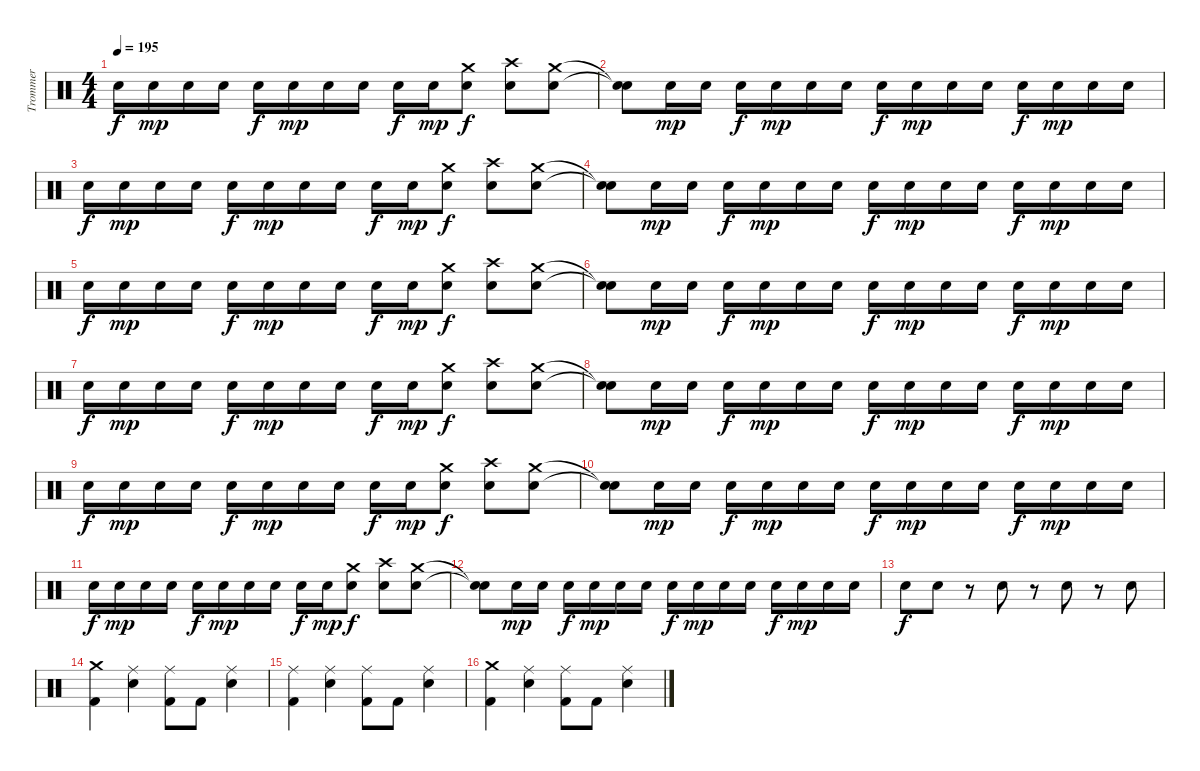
\track ("Trommer" "Trommer") {instrument percussion}
\staff {score}
\articulation defaults
\ts (4 4)
\tempo 195
\clef neutral
\ks c "Snare (hit) 2".16{dy f} "Snare (hit) 2".16{dy mp} "Snare (hit) 2".16 "Snare (hit) 2".16 "Snare (hit) 2".16{dy f} "Snare (hit) 2".16{dy mp} "Snare (hit) 2".16 "Snare (hit) 2".16 "Snare (hit) 2".16{dy f} "Snare (hit) 2".16{dy mp}
("Crash medium (hit)" "Snare (hit) 2").8{dy f} ("Crash high (hit)" "Snare (hit) 2").8 ("Crash medium (hit)" "Snare (hit) 2").8 |
("Snare (hit)"{t} "Snare (hit)"{t}).8 "Snare (hit) 2".16{dy mp} "Snare (hit) 2".16 "Snare (hit) 2".16{dy f} "Snare (hit) 2".16{dy mp} "Snare (hit) 2".16 "Snare (hit) 2".16 "Snare (hit) 2".16{dy f} "Snare (hit) 2".16{dy mp} "Snare (hit) 2".16 "Snare (hit) 2".16 "Snare (hit) 2".16{dy f} "Snare (hit) 2".16{dy mp} "Snare (hit) 2".16 "Snare (hit) 2".16 |
"Snare (hit) 2".16{dy f} "Snare (hit) 2".16{dy mp} "Snare (hit) 2".16 "Snare (hit) 2".16 "Snare (hit) 2".16{dy f} "Snare (hit) 2".16{dy mp} "Snare (hit) 2".16 "Snare (hit) 2".16 "Snare (hit) 2".16{dy f} "Snare (hit) 2".16{dy mp} ("Crash medium (hit)" "Snare (hit) 2").8{dy f} ("Crash high (hit)" "Snare (hit) 2").8 ("Crash medium (hit)" "Snare (hit) 2").8 |
("Snare (hit)"{t} "Snare (hit)"{t}).8 "Snare (hit) 2".16{dy mp} "Snare (hit) 2".16 "Snare (hit) 2".16{dy f} "Snare (hit) 2".16{dy mp} "Snare (hit) 2".16 "Snare (hit) 2".16 "Snare (hit) 2".16{dy f} "Snare (hit) 2".16{dy mp} "Snare (hit) 2".16 "Snare (hit) 2".16 "Snare (hit) 2".16{dy f} "Snare (hit) 2".16{dy mp} "Snare (hit) 2".16 "Snare (hit) 2".16 |
"Snare (hit) 2".16{dy f} "Snare (hit) 2".16{dy mp} "Snare (hit) 2".16 "Snare (hit) 2".16 "Snare (hit) 2".16{dy f} "Snare (hit) 2".16{dy mp} "Snare (hit) 2".16 "Snare (hit) 2".16 "Snare (hit) 2".16{dy f} "Snare (hit) 2".16{dy mp} ("Crash medium (hit)" "Snare (hit) 2").8{dy f} ("Crash high (hit)" "Snare (hit) 2").8 ("Crash medium (hit)" "Snare (hit) 2").8 |
("Snare (hit)"{t} "Snare (hit)"{t}).8 "Snare (hit) 2".16{dy mp} "Snare (hit) 2".16 "Snare (hit) 2".16{dy f} "Snare (hit) 2".16{dy mp} "Snare (hit) 2".16 "Snare (hit) 2".16 "Snare (hit) 2".16{dy f} "Snare (hit) 2".16{dy mp} "Snare (hit) 2".16 "Snare (hit) 2".16 "Snare (hit) 2".16{dy f} "Snare (hit) 2".16{dy mp} "Snare (hit) 2".16 "Snare (hit) 2".16 |
"Snare (hit) 2".16{dy f} "Snare (hit) 2".16{dy mp} "Snare (hit) 2".16 "Snare (hit) 2".16 "Snare (hit) 2".16{dy f} "Snare (hit) 2".16{dy mp} "Snare (hit) 2".16 "Snare (hit) 2".16 "Snare (hit) 2".16{dy f} "Snare (hit) 2".16{dy mp} ("Crash medium (hit)" "Snare (hit) 2").8{dy f} ("Crash high (hit)" "Snare (hit) 2").8 ("Crash medium (hit)" "Snare (hit) 2").8 |
("Snare (hit)"{t} "Snare (hit)"{t}).8 "Snare (hit) 2".16{dy mp} "Snare (hit) 2".16 "Snare (hit) 2".16{dy f} "Snare (hit) 2".16{dy mp} "Snare (hit) 2".16 "Snare (hit) 2".16 "Snare (hit) 2".16{dy f} "Snare (hit) 2".16{dy mp} "Snare (hit) 2".16 "Snare (hit) 2".16 "Snare (hit) 2".16{dy f} "Snare (hit) 2".16{dy mp} "Snare (hit) 2".16 "Snare (hit) 2".16 |
"Snare (hit) 2".16{dy f} "Snare (hit) 2".16{dy mp} "Snare (hit) 2".16 "Snare (hit) 2".16 "Snare (hit) 2".16{dy f} "Snare (hit) 2".16{dy mp} "Snare (hit) 2".16 "Snare (hit) 2".16 "Snare (hit) 2".16{dy f} "Snare (hit) 2".16{dy mp} ("Crash medium (hit)" "Snare (hit) 2").8{dy f} ("Crash high (hit)" "Snare (hit) 2").8 ("Crash medium (hit)" "Snare (hit) 2").8 |
("Snare (hit)"{t} "Snare (hit)"{t}).8 "Snare (hit) 2".16{dy mp} "Snare (hit) 2".16 "Snare (hit) 2".16{dy f} "Snare (hit) 2".16{dy mp} "Snare (hit) 2".16 "Snare (hit) 2".16 "Snare (hit) 2".16{dy f} "Snare (hit) 2".16{dy mp} "Snare (hit) 2".16 "Snare (hit) 2".16 "Snare (hit) 2".16{dy f} "Snare (hit) 2".16{dy mp} "Snare (hit) 2".16 "Snare (hit) 2".16 |
"Snare (hit) 2".16{dy f} "Snare (hit) 2".16{dy mp} "Snare (hit) 2".16 "Snare (hit) 2".16 "Snare (hit) 2".16{dy f} "Snare (hit) 2".16{dy mp} "Snare (hit) 2".16 "Snare (hit) 2".16 "Snare (hit) 2".16{dy f} "Snare (hit) 2".16{dy mp} ("Crash medium (hit)" "Snare (hit) 2").8{dy f} ("Crash high (hit)" "Snare (hit) 2").8 ("Crash medium (hit)" "Snare (hit) 2").8 |
("Snare (hit)"{t} "Snare (hit)"{t}).8 "Snare (hit) 2".16{dy mp} "Snare (hit) 2".16 "Snare (hit) 2".16{dy f} "Snare (hit) 2".16{dy mp} "Snare (hit) 2".16 "Snare (hit) 2".16 "Snare (hit) 2".16{dy f} "Snare (hit) 2".16{dy mp} "Snare (hit) 2".16 "Snare (hit) 2".16 "Snare (hit) 2".16{dy f} "Snare (hit) 2".16{dy mp} "Snare (hit) 2".16 "Snare (hit) 2".16 |
"Snare (hit) 2".8{dy f} "Snare (hit) 2".8 r.8 "Snare (hit) 2".8 r.8 "Snare (hit) 2".8 r.8 "Snare (hit) 2".8 |
("Kick (hit) 2" "Crash medium (hit)").4 ("Snare (hit) 2" "Ride (middle)").4 ("Ride (middle)" "Kick (hit) 2").8 "Kick (hit) 2".8 ("Ride (middle)" "Snare (hit) 2").4 |
("Ride (middle)" "Kick (hit) 2").4 ("Ride (middle)" "Snare (hit) 2").4 ("Ride (middle)" "Kick (hit) 2").8 "Kick (hit) 2".8 ("Ride (middle)" "Snare (hit) 2").4 |
("Kick (hit) 2" "Crash medium (hit)").4 ("Ride (middle)" "Snare (hit) 2").4 ("Ride (middle)" "Kick (hit) 2").8 "Kick (hit) 2".8 ("Ride (middle)" "Snare (hit) 2").4
